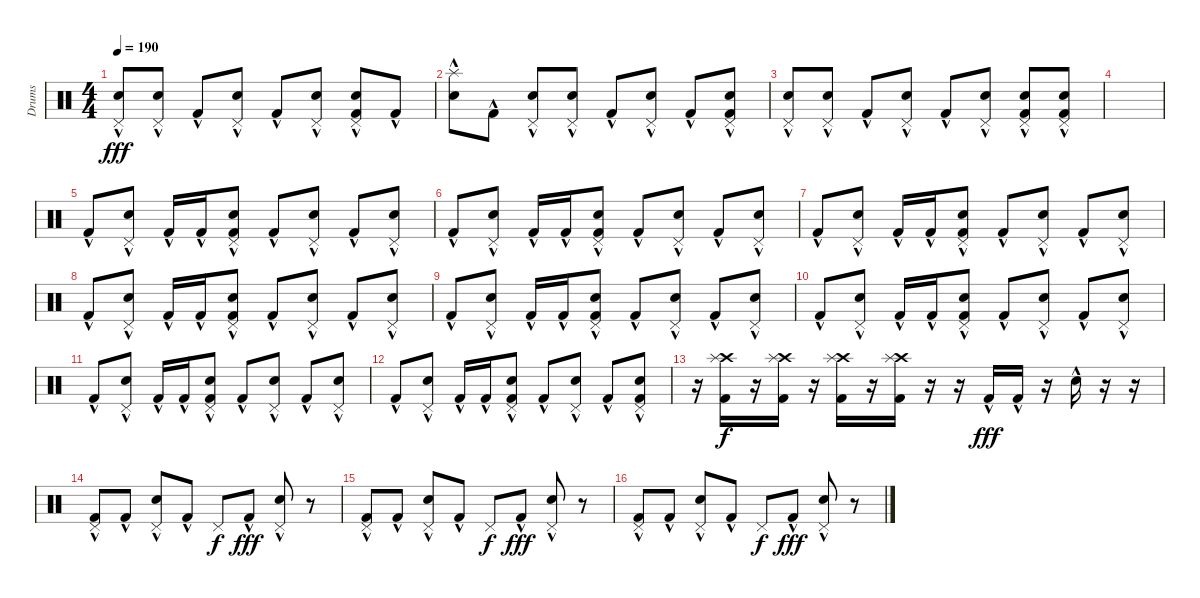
\track ("Drums" "Drums") {instrument percussion}
\staff {score}
\articulation defaults
\ts (4 4)
\tempo 190
\clef neutral
\ks c
("Snare (hit) 2"{hac} "Pedal Hi-Hat (hit)").8{dy fff} ("Snare (hit) 2"{hac} "Pedal Hi-Hat (hit)").8 "Kick (hit) 2"{hac}.8 ("Snare (hit) 2"{hac} "Pedal Hi-Hat (hit)").8 "Kick (hit) 2"{hac}.8 ("Snare (hit) 2"{hac} "Pedal Hi-Hat (hit)").8 ("Snare (hit) 2"{hac} "Pedal Hi-Hat (hit)" "Kick (hit) 2"{hac}).8 "Kick (hit) 2"{hac}.8 |
("Splash (hit)" "Snare (hit) 2"{hac}).8 "Kick (hit) 2"{hac}.8 ("Snare (hit) 2"{hac} "Pedal Hi-Hat (hit)").8 ("Snare (hit) 2"{hac} "Pedal Hi-Hat (hit)").8 "Kick (hit) 2"{hac}.8 ("Snare (hit) 2"{hac} "Pedal Hi-Hat (hit)").8 "Kick (hit) 2"{hac}.8 ("Snare (hit) 2"{hac} "Pedal Hi-Hat (hit)" "Kick (hit) 2"{hac}).8 |
("Snare (hit) 2"{hac} "Pedal Hi-Hat (hit)").8 ("Snare (hit) 2"{hac} "Pedal Hi-Hat (hit)").8 "Kick (hit) 2"{hac}.8 ("Snare (hit) 2"{hac} "Pedal Hi-Hat (hit)").8 "Kick (hit) 2"{hac}.8 ("Snare (hit) 2"{hac} "Pedal Hi-Hat (hit)").8 ("Snare (hit) 2"{hac} "Pedal Hi-Hat (hit)" "Kick (hit) 2"{hac}).8 ("Snare (hit) 2"{hac} "Pedal Hi-Hat (hit)" "Kick (hit) 2"{hac}).8 |
|
"Kick (hit) 2"{hac}.8 ("Pedal Hi-Hat (hit)" "Snare (hit) 2"{hac}).8 "Kick (hit) 2"{hac}.16 "Kick (hit) 2"{hac}.16 ("Pedal Hi-Hat (hit)" "Snare (hit) 2"{hac} "Kick (hit) 2"{hac}).8 "Kick (hit) 2"{hac}.8 ("Pedal Hi-Hat (hit)" "Snare (hit) 2"{hac}).8 "Kick (hit) 2"{hac}.8 ("Pedal Hi-Hat (hit)" "Snare (hit) 2"{hac}).8 |
"Kick (hit) 2"{hac}.8 ("Pedal Hi-Hat (hit)" "Snare (hit) 2"{hac}).8 "Kick (hit) 2"{hac}.16 "Kick (hit) 2"{hac}.16 ("Pedal Hi-Hat (hit)" "Snare (hit) 2"{hac} "Kick (hit) 2"{hac}).8 "Kick (hit) 2"{hac}.8 ("Pedal Hi-Hat (hit)" "Snare (hit) 2"{hac}).8 "Kick (hit) 2"{hac}.8 ("Pedal Hi-Hat (hit)" "Snare (hit) 2"{hac}).8 |
"Kick (hit) 2"{hac}.8 ("Pedal Hi-Hat (hit)" "Snare (hit) 2"{hac}).8 "Kick (hit) 2"{hac}.16 "Kick (hit) 2"{hac}.16 ("Pedal Hi-Hat (hit)" "Snare (hit) 2" "Kick (hit) 2"{hac}).8 "Kick (hit) 2"{hac}.8 ("Pedal Hi-Hat (hit)" "Snare (hit) 2"{hac}).8 "Kick (hit) 2"{hac}.8 ("Pedal Hi-Hat (hit)" "Snare (hit) 2"{hac}).8 |
"Kick (hit) 2"{hac}.8 ("Pedal Hi-Hat (hit)" "Snare (hit) 2"{hac}).8 "Kick (hit) 2"{hac}.16 "Kick (hit) 2"{hac}.16 ("Pedal Hi-Hat (hit)" "Snare (hit) 2" "Kick (hit) 2"{hac}).8 "Kick (hit) 2"{hac}.8 ("Pedal Hi-Hat (hit)" "Snare (hit) 2"{hac}).8 "Kick (hit) 2"{hac}.8 ("Pedal Hi-Hat (hit)" "Snare (hit) 2"{hac}).8 |
"Kick (hit) 2"{hac}.8 ("Pedal Hi-Hat (hit)" "Snare (hit) 2"{hac}).8 "Kick (hit) 2"{hac}.16 "Kick (hit) 2"{hac}.16 ("Pedal Hi-Hat (hit)" "Snare (hit) 2"{hac} "Kick (hit) 2"{hac}).8 "Kick (hit) 2"{hac}.8 ("Pedal Hi-Hat (hit)" "Snare (hit) 2"{hac}).8 "Kick (hit) 2"{hac}.8 ("Pedal Hi-Hat (hit)" "Snare (hit) 2"{hac}).8 |
"Kick (hit) 2"{hac}.8 ("Pedal Hi-Hat (hit)" "Snare (hit) 2"{hac}).8 "Kick (hit) 2"{hac}.16 "Kick (hit) 2"{hac}.16 ("Pedal Hi-Hat (hit)" "Snare (hit) 2"{hac} "Kick (hit) 2"{hac}).8 "Kick (hit) 2"{hac}.8 ("Pedal Hi-Hat (hit)" "Snare (hit) 2"{hac}).8 "Kick (hit) 2"{hac}.8 ("Pedal Hi-Hat (hit)" "Snare (hit) 2"{hac}).8 |
"Kick (hit) 2"{hac}.8 ("Pedal Hi-Hat (hit)" "Snare (hit) 2"{hac}).8 "Kick (hit) 2"{hac}.16 "Kick (hit) 2"{hac}.16 ("Pedal Hi-Hat (hit)" "Snare (hit) 2" "Kick (hit) 2"{hac}).8 "Kick (hit) 2"{hac}.8 ("Pedal Hi-Hat (hit)" "Snare (hit) 2"{hac}).8 "Kick (hit) 2"{hac}.8 ("Pedal Hi-Hat (hit)" "Snare (hit) 2"{hac}).8 |
"Kick (hit) 2"{hac}.8 ("Pedal Hi-Hat (hit)" "Snare (hit) 2"{hac}).8 "Kick (hit) 2"{hac}.16 "Kick (hit) 2"{hac}.16 ("Pedal Hi-Hat (hit)" "Snare (hit) 2" "Kick (hit) 2"{hac}).8 "Kick (hit) 2"{hac}.8 ("Pedal Hi-Hat (hit)" "Snare (hit) 2"{hac}).8 "Kick (hit) 2"{hac}.8 ("Pedal Hi-Hat (hit)" "Snare (hit) 2"{hac} "Kick (hit) 2").8 |
r.16 ("Crash high (hit)" "Splash (hit)" "Kick (hit) 2").16{dy f} r.16 ("Crash high (hit)" "Splash (hit)" "Kick (hit) 2").16 r.16 ("Crash high (hit)" "Splash (hit)" "Kick (hit) 2").16 r.16 ("Crash high (hit)" "Splash (hit)" "Kick (hit) 2").16 r.16 r.16 "Kick (hit) 2"{hac}.16{dy fff} "Kick (hit) 2"{hac}.16 r.16 "Snare (hit) 2"{hac}.16 r.16 r.16 |
("Pedal Hi-Hat (hit)" "Kick (hit) 2"{hac}).8 "Kick (hit) 2"{hac}.8 ("Pedal Hi-Hat (hit)" "Snare (hit) 2"{hac}).8 "Kick (hit) 2"{hac}.8 "Pedal Hi-Hat (hit)".8{dy f} "Kick (hit) 2"{hac}.8{dy fff} ("Pedal Hi-Hat (hit)" "Snare (hit) 2"{hac}).8 r.8 |
("Pedal Hi-Hat (hit)" "Kick (hit) 2"{hac}).8 "Kick (hit) 2"{hac}.8 ("Pedal Hi-Hat (hit)" "Snare (hit) 2"{hac}).8 "Kick (hit) 2"{hac}.8 "Pedal Hi-Hat (hit)".8{dy f} "Kick (hit) 2"{hac}.8{dy fff} ("Pedal Hi-Hat (hit)" "Snare (hit) 2"{hac}).8 r.8 |
("Pedal Hi-Hat (hit)" "Kick (hit) 2"{hac}).8 "Kick (hit) 2"{hac}.8 ("Pedal Hi-Hat (hit)" "Snare (hit) 2"{hac}).8 "Kick (hit) 2"{hac}.8 "Pedal Hi-Hat (hit)".8{dy f} "Kick (hit) 2"{hac}.8{dy fff} ("Pedal Hi-Hat (hit)" "Snare (hit) 2"{hac}).8 r.8
